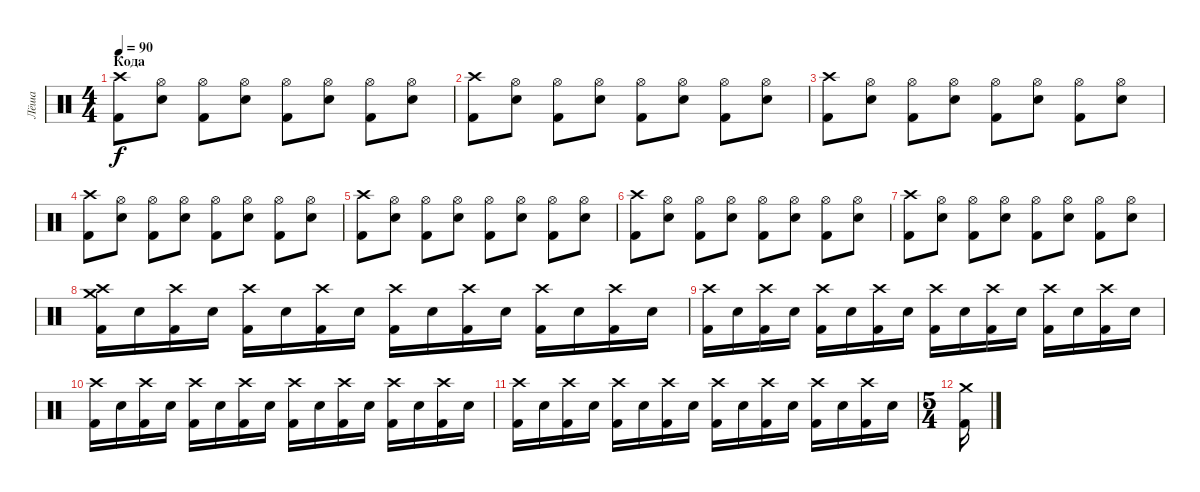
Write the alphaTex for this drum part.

\track ("Лёша" "Лёша") {instrument percussion}
\staff {score}
\articulation defaults
\ts (4 4)
\section ("" "Кода")
\tempo 90
\clef neutral
\ks c
("Kick (hit) 2" "Crash high (hit)").8{dy f} ("Hi-Hat (open)" "Electric Snare (hit)").8 ("Hi-Hat (open)" "Kick (hit) 2").8 ("Hi-Hat (open)" "Electric Snare (hit)").8 ("Hi-Hat (open)" "Kick (hit) 2").8 ("Hi-Hat (open)" "Electric Snare (hit)").8 ("Hi-Hat (open)" "Kick (hit) 2").8 ("Hi-Hat (open)" "Electric Snare (hit)").8 |
("Kick (hit) 2" "Crash high (hit)").8 ("Hi-Hat (open)" "Electric Snare (hit)").8 ("Hi-Hat (open)" "Kick (hit) 2").8 ("Hi-Hat (open)" "Electric Snare (hit)").8 ("Hi-Hat (open)" "Kick (hit) 2").8 ("Hi-Hat (open)" "Electric Snare (hit)").8 ("Hi-Hat (open)" "Kick (hit) 2").8 ("Hi-Hat (open)" "Electric Snare (hit)").8 |
("Kick (hit) 2" "Crash high (hit)").8 ("Hi-Hat (open)" "Electric Snare (hit)").8 ("Hi-Hat (open)" "Kick (hit) 2").8 ("Hi-Hat (open)" "Electric Snare (hit)").8 ("Hi-Hat (open)" "Kick (hit) 2").8 ("Hi-Hat (open)" "Electric Snare (hit)").8 ("Hi-Hat (open)" "Kick (hit) 2").8 ("Hi-Hat (open)" "Electric Snare (hit)").8 |
("Kick (hit) 2" "Crash high (hit)").8 ("Hi-Hat (open)" "Electric Snare (hit)").8 ("Hi-Hat (open)" "Kick (hit) 2").8 ("Hi-Hat (open)" "Electric Snare (hit)").8 ("Hi-Hat (open)" "Kick (hit) 2").8 ("Hi-Hat (open)" "Electric Snare (hit)").8 ("Hi-Hat (open)" "Kick (hit) 2").8 ("Hi-Hat (open)" "Electric Snare (hit)").8 |
("Kick (hit) 2" "Crash high (hit)").8 ("Hi-Hat (open)" "Electric Snare (hit)").8 ("Hi-Hat (open)" "Kick (hit) 2").8 ("Hi-Hat (open)" "Electric Snare (hit)").8 ("Hi-Hat (open)" "Kick (hit) 2").8 ("Hi-Hat (open)" "Electric Snare (hit)").8 ("Hi-Hat (open)" "Kick (hit) 2").8 ("Hi-Hat (open)" "Electric Snare (hit)").8 |
("Kick (hit) 2" "Crash high (hit)").8 ("Hi-Hat (open)" "Electric Snare (hit)").8 ("Hi-Hat (open)" "Kick (hit) 2").8 ("Hi-Hat (open)" "Electric Snare (hit)").8 ("Hi-Hat (open)" "Kick (hit) 2").8 ("Hi-Hat (open)" "Electric Snare (hit)").8 ("Hi-Hat (open)" "Kick (hit) 2").8 ("Hi-Hat (open)" "Electric Snare (hit)").8 |
("Kick (hit) 2" "Crash high (hit)").8 ("Hi-Hat (open)" "Electric Snare (hit)").8 ("Hi-Hat (open)" "Kick (hit) 2").8 ("Hi-Hat (open)" "Electric Snare (hit)").8 ("Hi-Hat (open)" "Kick (hit) 2").8 ("Hi-Hat (open)" "Electric Snare (hit)").8 ("Hi-Hat (open)" "Kick (hit) 2").8 ("Hi-Hat (open)" "Electric Snare (hit)").8 |
("Crash high (hit)" "Kick (hit) 2" "Crash medium (hit)").16 "Electric Snare (hit)".16 ("Crash high (hit)" "Kick (hit) 2").16 "Electric Snare (hit)".16 ("Crash high (hit)" "Kick (hit) 2").16 "Electric Snare (hit)".16 ("Crash high (hit)" "Kick (hit) 2").16 "Electric Snare (hit)".16 ("Crash high (hit)" "Kick (hit) 2").16 "Electric Snare (hit)".16 ("Crash high (hit)" "Kick (hit) 2").16 "Electric Snare (hit)".16 ("Crash high (hit)" "Kick (hit) 2").16 "Electric Snare (hit)".16 ("Crash high (hit)" "Kick (hit) 2").16 "Electric Snare (hit)".16 |
("Crash high (hit)" "Kick (hit) 2").16 "Electric Snare (hit)".16 ("Crash high (hit)" "Kick (hit) 2").16 "Electric Snare (hit)".16 ("Crash high (hit)" "Kick (hit) 2").16 "Electric Snare (hit)".16 ("Crash high (hit)" "Kick (hit) 2").16 "Electric Snare (hit)".16 ("Crash high (hit)" "Kick (hit) 2").16 "Electric Snare (hit)".16 ("Crash high (hit)" "Kick (hit) 2").16 "Electric Snare (hit)".16 ("Crash high (hit)" "Kick (hit) 2").16 "Electric Snare (hit)".16 ("Crash high (hit)" "Kick (hit) 2").16 "Electric Snare (hit)".16 |
("Crash high (hit)" "Kick (hit) 2").16 "Electric Snare (hit)".16 ("Crash high (hit)" "Kick (hit) 2").16 "Electric Snare (hit)".16 ("Crash high (hit)" "Kick (hit) 2").16 "Electric Snare (hit)".16 ("Crash high (hit)" "Kick (hit) 2").16 "Electric Snare (hit)".16 ("Crash high (hit)" "Kick (hit) 2").16 "Electric Snare (hit)".16 ("Crash high (hit)" "Kick (hit) 2").16 "Electric Snare (hit)".16 ("Crash high (hit)" "Kick (hit) 2").16 "Electric Snare (hit)".16 ("Crash high (hit)" "Kick (hit) 2").16 "Electric Snare (hit)".16 |
("Crash high (hit)" "Kick (hit) 2").16 "Electric Snare (hit)".16 ("Crash high (hit)" "Kick (hit) 2").16 "Electric Snare (hit)".16 ("Crash high (hit)" "Kick (hit) 2").16 "Electric Snare (hit)".16 ("Crash high (hit)" "Kick (hit) 2").16 "Electric Snare (hit)".16 ("Crash high (hit)" "Kick (hit) 2").16 "Electric Snare (hit)".16 ("Crash high (hit)" "Kick (hit) 2").16 "Electric Snare (hit)".16 ("Crash high (hit)" "Kick (hit) 2").16 "Electric Snare (hit)".16 ("Crash high (hit)" "Kick (hit) 2").16 "Electric Snare (hit)".16 |
\ts (5 4)
("Kick (hit) 2" "Crash medium (hit)").16
